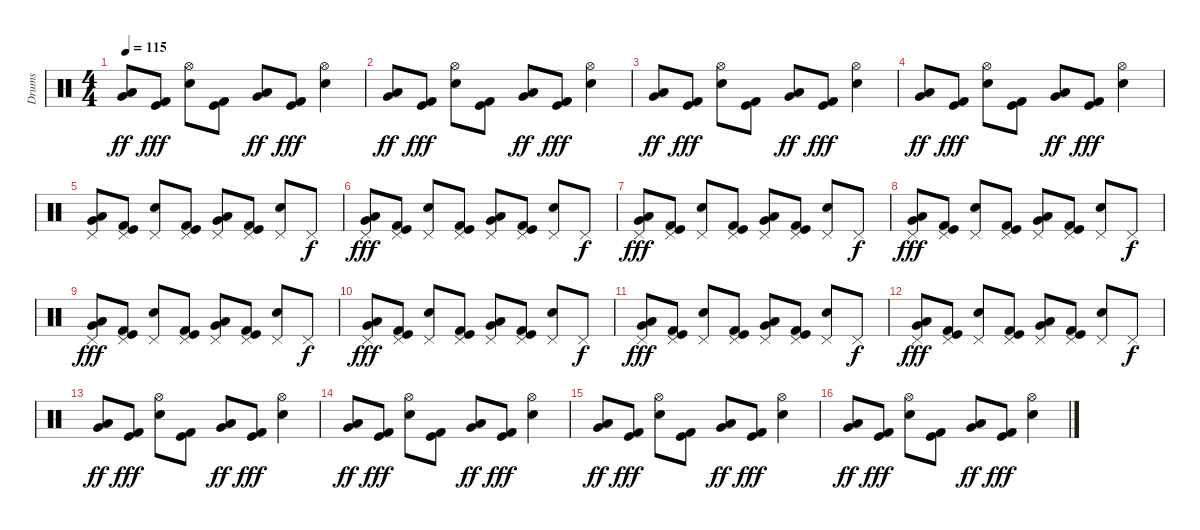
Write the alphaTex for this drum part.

\track ("Drums" "Drums") {instrument percussion}
\staff {score}
\articulation defaults
\ts (4 4)
\tempo 115
\clef neutral
\ks c
("Low Tom (hit)" "Very Low Tom (hit)").8{bd 120 dy ff} ("Kick (hit)" "Kick (hit) 2").8{dy fff} ("Hi-Hat (open)" "Electric Snare (hit)").8 ("Kick (hit)" "Kick (hit) 2").8 ("Low Tom (hit)" "Very Low Tom (hit)").8{bd 120 dy ff} ("Kick (hit)" "Kick (hit) 2").8{dy fff} ("Hi-Hat (open)" "Electric Snare (hit)").4 |
("Low Tom (hit)" "Very Low Tom (hit)").8{bd 120 dy ff} ("Kick (hit)" "Kick (hit) 2").8{dy fff} ("Hi-Hat (open)" "Electric Snare (hit)").8 ("Kick (hit)" "Kick (hit) 2").8 ("Low Tom (hit)" "Very Low Tom (hit)").8{bd 120 dy ff} ("Kick (hit)" "Kick (hit) 2").8{dy fff} ("Hi-Hat (open)" "Electric Snare (hit)").4 |
("Low Tom (hit)" "Very Low Tom (hit)").8{bd 120 dy ff} ("Kick (hit)" "Kick (hit) 2").8{dy fff} ("Hi-Hat (open)" "Electric Snare (hit)").8 ("Kick (hit)" "Kick (hit) 2").8 ("Low Tom (hit)" "Very Low Tom (hit)").8{bd 120 dy ff} ("Kick (hit)" "Kick (hit) 2").8{dy fff} ("Hi-Hat (open)" "Electric Snare (hit)").4 |
("Low Tom (hit)" "Very Low Tom (hit)").8{bd 120 dy ff} ("Kick (hit)" "Kick (hit) 2").8{dy fff} ("Hi-Hat (open)" "Electric Snare (hit)").8 ("Kick (hit)" "Kick (hit) 2").8 ("Low Tom (hit)" "Very Low Tom (hit)").8{bd 120 dy ff} ("Kick (hit)" "Kick (hit) 2").8{dy fff} ("Hi-Hat (open)" "Electric Snare (hit)").4 |
("Pedal Hi-Hat (hit)" "Low Tom (hit)" "Very Low Tom (hit)").8{bd 120} ("Pedal Hi-Hat (hit)" "Kick (hit)" "Kick (hit) 2").8 ("Pedal Hi-Hat (hit)" "Electric Snare (hit)").8 ("Pedal Hi-Hat (hit)" "Kick (hit)" "Kick (hit) 2").8 ("Pedal Hi-Hat (hit)" "Low Tom (hit)" "Very Low Tom (hit)").8{bd 120} ("Pedal Hi-Hat (hit)" "Kick (hit)" "Kick (hit) 2").8 ("Pedal Hi-Hat (hit)" "Electric Snare (hit)").8 "Pedal Hi-Hat (hit)".8{dy f} |
("Pedal Hi-Hat (hit)" "Low Tom (hit)" "Very Low Tom (hit)").8{bd 120 dy fff} ("Pedal Hi-Hat (hit)" "Kick (hit)" "Kick (hit) 2").8 ("Pedal Hi-Hat (hit)" "Electric Snare (hit)").8 ("Pedal Hi-Hat (hit)" "Kick (hit)" "Kick (hit) 2").8 ("Pedal Hi-Hat (hit)" "Low Tom (hit)" "Very Low Tom (hit)").8{bd 120} ("Pedal Hi-Hat (hit)" "Kick (hit)" "Kick (hit) 2").8 ("Pedal Hi-Hat (hit)" "Electric Snare (hit)").8 "Pedal Hi-Hat (hit)".8{dy f} |
("Pedal Hi-Hat (hit)" "Low Tom (hit)" "Very Low Tom (hit)").8{bd 120 dy fff} ("Pedal Hi-Hat (hit)" "Kick (hit)" "Kick (hit) 2").8 ("Pedal Hi-Hat (hit)" "Electric Snare (hit)").8 ("Pedal Hi-Hat (hit)" "Kick (hit)" "Kick (hit) 2").8 ("Pedal Hi-Hat (hit)" "Low Tom (hit)" "Very Low Tom (hit)").8{bd 120} ("Pedal Hi-Hat (hit)" "Kick (hit)" "Kick (hit) 2").8 ("Pedal Hi-Hat (hit)" "Electric Snare (hit)").8 "Pedal Hi-Hat (hit)".8{dy f} |
("Pedal Hi-Hat (hit)" "Low Tom (hit)" "Very Low Tom (hit)").8{bd 120 dy fff} ("Pedal Hi-Hat (hit)" "Kick (hit)" "Kick (hit) 2").8 ("Pedal Hi-Hat (hit)" "Electric Snare (hit)").8 ("Pedal Hi-Hat (hit)" "Kick (hit)" "Kick (hit) 2").8 ("Pedal Hi-Hat (hit)" "Low Tom (hit)" "Very Low Tom (hit)").8{bd 120} ("Pedal Hi-Hat (hit)" "Kick (hit)" "Kick (hit) 2").8 ("Pedal Hi-Hat (hit)" "Electric Snare (hit)").8 "Pedal Hi-Hat (hit)".8{dy f} |
("Pedal Hi-Hat (hit)" "Low Tom (hit)" "Very Low Tom (hit)").8{bd 120 dy fff} ("Pedal Hi-Hat (hit)" "Kick (hit)" "Kick (hit) 2").8 ("Pedal Hi-Hat (hit)" "Electric Snare (hit)").8 ("Pedal Hi-Hat (hit)" "Kick (hit)" "Kick (hit) 2").8 ("Pedal Hi-Hat (hit)" "Low Tom (hit)" "Very Low Tom (hit)").8{bd 120} ("Pedal Hi-Hat (hit)" "Kick (hit)" "Kick (hit) 2").8 ("Pedal Hi-Hat (hit)" "Electric Snare (hit)").8 "Pedal Hi-Hat (hit)".8{dy f} |
("Pedal Hi-Hat (hit)" "Low Tom (hit)" "Very Low Tom (hit)").8{bd 120 dy fff} ("Pedal Hi-Hat (hit)" "Kick (hit)" "Kick (hit) 2").8 ("Pedal Hi-Hat (hit)" "Electric Snare (hit)").8 ("Pedal Hi-Hat (hit)" "Kick (hit)" "Kick (hit) 2").8 ("Pedal Hi-Hat (hit)" "Low Tom (hit)" "Very Low Tom (hit)").8{bd 120} ("Pedal Hi-Hat (hit)" "Kick (hit)" "Kick (hit) 2").8 ("Pedal Hi-Hat (hit)" "Electric Snare (hit)").8 "Pedal Hi-Hat (hit)".8{dy f} |
("Pedal Hi-Hat (hit)" "Low Tom (hit)" "Very Low Tom (hit)").8{bd 120 dy fff} ("Pedal Hi-Hat (hit)" "Kick (hit)" "Kick (hit) 2").8 ("Pedal Hi-Hat (hit)" "Electric Snare (hit)").8 ("Pedal Hi-Hat (hit)" "Kick (hit)" "Kick (hit) 2").8 ("Pedal Hi-Hat (hit)" "Low Tom (hit)" "Very Low Tom (hit)").8{bd 120} ("Pedal Hi-Hat (hit)" "Kick (hit)" "Kick (hit) 2").8 ("Pedal Hi-Hat (hit)" "Electric Snare (hit)").8 "Pedal Hi-Hat (hit)".8{dy f} |
("Pedal Hi-Hat (hit)" "Low Tom (hit)" "Very Low Tom (hit)").8{bd 120 dy fff} ("Pedal Hi-Hat (hit)" "Kick (hit)" "Kick (hit) 2").8 ("Pedal Hi-Hat (hit)" "Electric Snare (hit)").8 ("Pedal Hi-Hat (hit)" "Kick (hit)" "Kick (hit) 2").8 ("Pedal Hi-Hat (hit)" "Low Tom (hit)" "Very Low Tom (hit)").8{bd 120} ("Pedal Hi-Hat (hit)" "Kick (hit)" "Kick (hit) 2").8 ("Pedal Hi-Hat (hit)" "Electric Snare (hit)").8 "Pedal Hi-Hat (hit)".8{dy f} |
("Low Tom (hit)" "Very Low Tom (hit)").8{bd 120 dy ff} ("Kick (hit)" "Kick (hit) 2").8{dy fff} ("Hi-Hat (open)" "Electric Snare (hit)").8 ("Kick (hit)" "Kick (hit) 2").8 ("Low Tom (hit)" "Very Low Tom (hit)").8{bd 120 dy ff} ("Kick (hit)" "Kick (hit) 2").8{dy fff} ("Hi-Hat (open)" "Electric Snare (hit)").4 |
("Low Tom (hit)" "Very Low Tom (hit)").8{bd 120 dy ff} ("Kick (hit)" "Kick (hit) 2").8{dy fff} ("Hi-Hat (open)" "Electric Snare (hit)").8 ("Kick (hit)" "Kick (hit) 2").8 ("Low Tom (hit)" "Very Low Tom (hit)").8{bd 120 dy ff} ("Kick (hit)" "Kick (hit) 2").8{dy fff} ("Hi-Hat (open)" "Electric Snare (hit)").4 |
("Low Tom (hit)" "Very Low Tom (hit)").8{bd 120 dy ff} ("Kick (hit)" "Kick (hit) 2").8{dy fff} ("Hi-Hat (open)" "Electric Snare (hit)").8 ("Kick (hit)" "Kick (hit) 2").8 ("Low Tom (hit)" "Very Low Tom (hit)").8{bd 120 dy ff} ("Kick (hit)" "Kick (hit) 2").8{dy fff} ("Hi-Hat (open)" "Electric Snare (hit)").4 |
("Low Tom (hit)" "Very Low Tom (hit)").8{bd 120 dy ff} ("Kick (hit)" "Kick (hit) 2").8{dy fff} ("Hi-Hat (open)" "Electric Snare (hit)").8 ("Kick (hit)" "Kick (hit) 2").8 ("Low Tom (hit)" "Very Low Tom (hit)").8{bd 120 dy ff} ("Kick (hit)" "Kick (hit) 2").8{dy fff} ("Hi-Hat (open)" "Electric Snare (hit)").4
